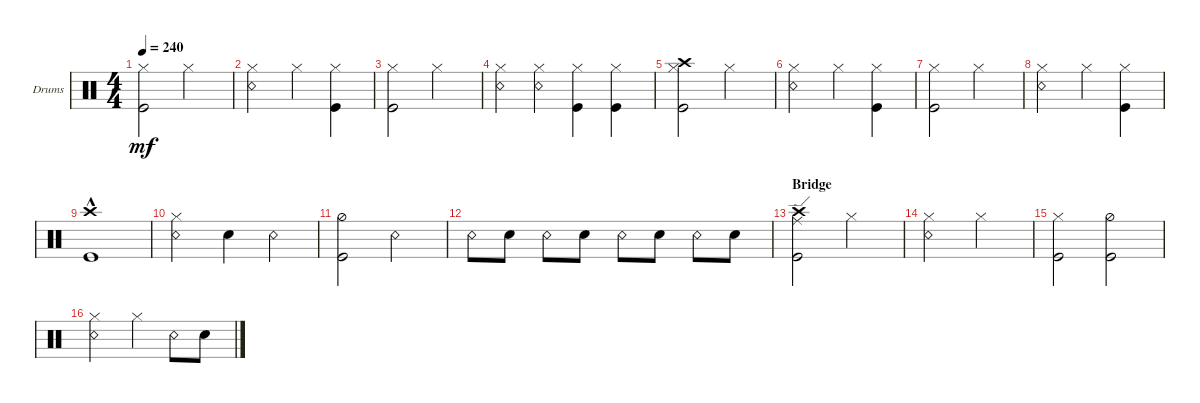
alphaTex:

\defaultSystemsLayout 4
\bracketExtendMode groupsimilarinstruments
\firstSystemTrackNameOrientation horizontal
\otherSystemsTrackNameOrientation horizontal
\track ("Drumkit" "Drums") {instrument percussion}
\staff {score}
\articulation defaults
\ts (4 4)
\tempo 240
\clef neutral
\ks c
("Kick (hit)" "Hi-Hat (closed)").2{dy mf} "Hi-Hat (closed)".2 |
("Snare (rim shot)" "Hi-Hat (closed)").2 "Hi-Hat (closed)".4 ("Kick (hit)" "Hi-Hat (closed)").4 |
("Kick (hit)" "Hi-Hat (closed)").2 "Hi-Hat (closed)".2 |
("Snare (rim shot)" "Hi-Hat (closed)").4 ("Snare (rim shot)" "Hi-Hat (closed)").4 ("Kick (hit)" "Hi-Hat (closed)").4 ("Kick (hit)" "Hi-Hat (closed)").4 |
("Kick (hit)" "Hi-Hat (closed)" "Crash high (hit)").2 "Hi-Hat (closed)".2 |
("Snare (rim shot)" "Hi-Hat (closed)").2 "Hi-Hat (closed)".4 ("Kick (hit)" "Hi-Hat (closed)").4 |
("Kick (hit)" "Hi-Hat (closed)").2 "Hi-Hat (closed)".2 |
("Snare (rim shot)" "Hi-Hat (closed)").2 "Hi-Hat (closed)".4 ("Kick (hit)" "Hi-Hat (closed)").4 |
("Crash high (hit)"{hac} "Kick (hit)"{hac}).1 |
("Snare (rim shot)" "Hi-Hat (closed)").2 "Snare (hit) 2".4 "Snare (rim shot)".4 |
("Kick (hit)" "Hi-Hat (half)").2 "Snare (rim shot)".2 |
"Snare (rim shot)".8 "Snare (hit) 2".8 "Snare (rim shot)".8 "Snare (hit) 2".8 "Snare (rim shot)".8 "Snare (hit) 2".8 "Snare (rim shot)".8 "Snare (hit) 2".8 |
\section ("" "Bridge")
("Kick (hit)" "Crash high (hit)" "Ride (edge)").2 "Hi-Hat (closed)".2 |
("Snare (rim shot)" "Hi-Hat (closed)").2 "Hi-Hat (closed)".2 |
("Kick (hit)" "Hi-Hat (closed)").2 ("Kick (hit)" "Hi-Hat (half)").2 |
("Snare (rim shot)" "Hi-Hat (closed)").2 "Hi-Hat (closed)".4 "Snare (rim shot)".8 "Snare (hit) 2".8
